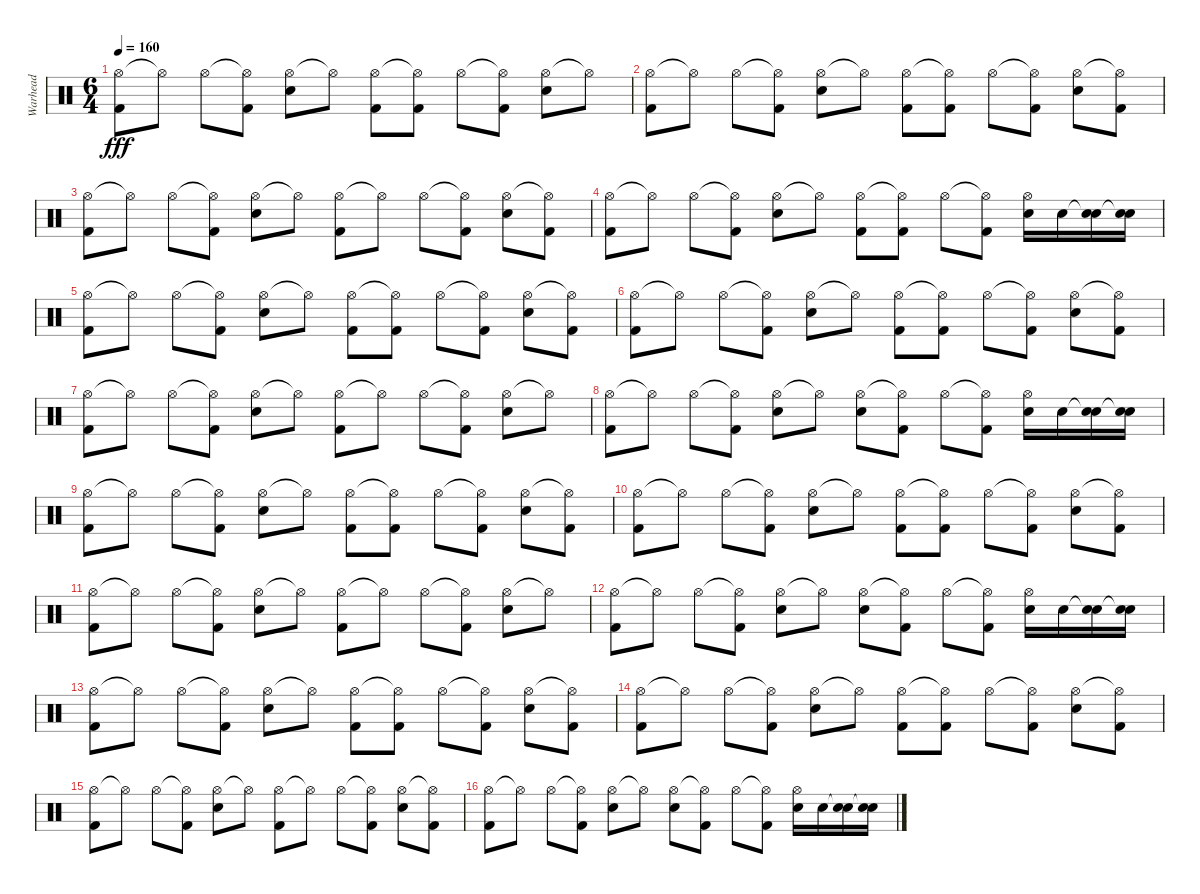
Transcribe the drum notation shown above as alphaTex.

\track ("Warhead" "Warhead") {instrument percussion}
\staff {score}
\articulation defaults
\ts (6 4)
\tempo 160
\clef neutral
\ks c
("Hi-Hat (open)" "Kick (hit) 2").8{dy fff} "Hi-Hat (open)"{t}.8 "Hi-Hat (open)".8 ("Hi-Hat (open)"{t} "Kick (hit) 2").8 ("Hi-Hat (open)" "Electric Snare (hit)").8 "Hi-Hat (open)"{t}.8 ("Hi-Hat (open)" "Kick (hit) 2").8 ("Hi-Hat (open)"{t} "Kick (hit) 2").8 "Hi-Hat (open)".8 ("Hi-Hat (open)"{t} "Kick (hit) 2").8 ("Hi-Hat (open)" "Electric Snare (hit)").8 "Hi-Hat (open)"{t}.8 |
("Hi-Hat (open)" "Kick (hit) 2").8 "Hi-Hat (open)"{t}.8 "Hi-Hat (open)".8 ("Hi-Hat (open)"{t} "Kick (hit) 2").8 ("Hi-Hat (open)" "Electric Snare (hit)").8 "Hi-Hat (open)"{t}.8 ("Hi-Hat (open)" "Kick (hit) 2").8 ("Hi-Hat (open)"{t} "Kick (hit) 2").8 "Hi-Hat (open)".8 ("Hi-Hat (open)"{t} "Kick (hit) 2").8 ("Hi-Hat (open)" "Electric Snare (hit)").8 ("Hi-Hat (open)"{t} "Kick (hit) 2").8 |
("Hi-Hat (open)" "Kick (hit) 2").8 "Hi-Hat (open)"{t}.8 "Hi-Hat (open)".8 ("Hi-Hat (open)"{t} "Kick (hit) 2").8 ("Hi-Hat (open)" "Electric Snare (hit)").8 "Hi-Hat (open)"{t}.8 ("Hi-Hat (open)" "Kick (hit) 2").8 "Hi-Hat (open)"{t}.8 "Hi-Hat (open)".8 ("Hi-Hat (open)"{t} "Kick (hit) 2").8 ("Hi-Hat (open)" "Electric Snare (hit)").8 ("Hi-Hat (open)"{t} "Kick (hit) 2").8 |
("Hi-Hat (open)" "Kick (hit) 2").8 "Hi-Hat (open)"{t}.8 "Hi-Hat (open)".8 ("Hi-Hat (open)"{t} "Kick (hit) 2").8 ("Hi-Hat (open)" "Electric Snare (hit)").8 "Hi-Hat (open)"{t}.8 ("Hi-Hat (open)" "Kick (hit) 2").8 ("Hi-Hat (open)"{t} "Kick (hit) 2").8 "Hi-Hat (open)".8 ("Hi-Hat (open)"{t} "Kick (hit) 2").8 ("Hi-Hat (open)" "Electric Snare (hit)").16 "Electric Snare (hit)".16 ("Snare (hit)"{t} "Electric Snare (hit)").16 ("Snare (hit)"{t} "Electric Snare (hit)").16 |
("Hi-Hat (open)" "Kick (hit) 2").8 "Hi-Hat (open)"{t}.8 "Hi-Hat (open)".8 ("Hi-Hat (open)"{t} "Kick (hit) 2").8 ("Hi-Hat (open)" "Electric Snare (hit)").8 "Hi-Hat (open)"{t}.8 ("Hi-Hat (open)" "Kick (hit) 2").8 ("Hi-Hat (open)"{t} "Kick (hit) 2").8 "Hi-Hat (open)".8 ("Hi-Hat (open)"{t} "Kick (hit) 2").8 ("Hi-Hat (open)" "Electric Snare (hit)").8 ("Hi-Hat (open)"{t} "Kick (hit) 2").8 |
("Hi-Hat (open)" "Kick (hit) 2").8 "Hi-Hat (open)"{t}.8 "Hi-Hat (open)".8 ("Hi-Hat (open)"{t} "Kick (hit) 2").8 ("Hi-Hat (open)" "Electric Snare (hit)").8 "Hi-Hat (open)"{t}.8 ("Hi-Hat (open)" "Kick (hit) 2").8 ("Hi-Hat (open)"{t} "Kick (hit) 2").8 "Hi-Hat (open)".8 ("Hi-Hat (open)"{t} "Kick (hit) 2").8 ("Hi-Hat (open)" "Electric Snare (hit)").8 ("Hi-Hat (open)"{t} "Kick (hit) 2").8 |
("Hi-Hat (open)" "Kick (hit) 2").8 "Hi-Hat (open)"{t}.8 "Hi-Hat (open)".8 ("Hi-Hat (open)"{t} "Kick (hit) 2").8 ("Hi-Hat (open)" "Electric Snare (hit)").8 "Hi-Hat (open)"{t}.8 ("Hi-Hat (open)" "Kick (hit) 2").8 "Hi-Hat (open)"{t}.8 "Hi-Hat (open)".8 ("Hi-Hat (open)"{t} "Kick (hit) 2").8 ("Hi-Hat (open)" "Electric Snare (hit)").8 "Hi-Hat (open)"{t}.8 |
("Hi-Hat (open)" "Kick (hit) 2").8 "Hi-Hat (open)"{t}.8 "Hi-Hat (open)".8 ("Hi-Hat (open)"{t} "Kick (hit) 2").8 ("Hi-Hat (open)" "Electric Snare (hit)").8 "Hi-Hat (open)"{t}.8 ("Hi-Hat (open)" "Electric Snare (hit)").8 ("Hi-Hat (open)"{t} "Kick (hit) 2").8 "Hi-Hat (open)".8 ("Hi-Hat (open)"{t} "Kick (hit) 2").8 ("Hi-Hat (open)" "Electric Snare (hit)").16 "Electric Snare (hit)".16 ("Snare (hit)"{t} "Electric Snare (hit)").16 ("Snare (hit)"{t} "Electric Snare (hit)").16 |
("Hi-Hat (open)" "Kick (hit) 2").8 "Hi-Hat (open)"{t}.8 "Hi-Hat (open)".8 ("Hi-Hat (open)"{t} "Kick (hit) 2").8 ("Hi-Hat (open)" "Electric Snare (hit)").8 "Hi-Hat (open)"{t}.8 ("Hi-Hat (open)" "Kick (hit) 2").8 ("Hi-Hat (open)"{t} "Kick (hit) 2").8 "Hi-Hat (open)".8 ("Hi-Hat (open)"{t} "Kick (hit) 2").8 ("Hi-Hat (open)" "Electric Snare (hit)").8 ("Hi-Hat (open)"{t} "Kick (hit) 2").8 |
("Hi-Hat (open)" "Kick (hit) 2").8 "Hi-Hat (open)"{t}.8 "Hi-Hat (open)".8 ("Hi-Hat (open)"{t} "Kick (hit) 2").8 ("Hi-Hat (open)" "Electric Snare (hit)").8 "Hi-Hat (open)"{t}.8 ("Hi-Hat (open)" "Kick (hit) 2").8 ("Hi-Hat (open)"{t} "Kick (hit) 2").8 "Hi-Hat (open)".8 ("Hi-Hat (open)"{t} "Kick (hit) 2").8 ("Hi-Hat (open)" "Electric Snare (hit)").8 ("Hi-Hat (open)"{t} "Kick (hit) 2").8 |
("Hi-Hat (open)" "Kick (hit) 2").8 "Hi-Hat (open)"{t}.8 "Hi-Hat (open)".8 ("Hi-Hat (open)"{t} "Kick (hit) 2").8 ("Hi-Hat (open)" "Electric Snare (hit)").8 "Hi-Hat (open)"{t}.8 ("Hi-Hat (open)" "Kick (hit) 2").8 "Hi-Hat (open)"{t}.8 "Hi-Hat (open)".8 ("Hi-Hat (open)"{t} "Kick (hit) 2").8 ("Hi-Hat (open)" "Electric Snare (hit)").8 "Hi-Hat (open)"{t}.8 |
("Hi-Hat (open)" "Kick (hit) 2").8 "Hi-Hat (open)"{t}.8 "Hi-Hat (open)".8 ("Hi-Hat (open)"{t} "Kick (hit) 2").8 ("Hi-Hat (open)" "Electric Snare (hit)").8 "Hi-Hat (open)"{t}.8 ("Hi-Hat (open)" "Electric Snare (hit)").8 ("Hi-Hat (open)"{t} "Kick (hit) 2").8 "Hi-Hat (open)".8 ("Hi-Hat (open)"{t} "Kick (hit) 2").8 ("Hi-Hat (open)" "Electric Snare (hit)").16 "Electric Snare (hit)".16 ("Snare (hit)"{t} "Electric Snare (hit)").16 ("Snare (hit)"{t} "Electric Snare (hit)").16 |
("Hi-Hat (open)" "Kick (hit) 2").8 "Hi-Hat (open)"{t}.8 "Hi-Hat (open)".8 ("Hi-Hat (open)"{t} "Kick (hit) 2").8 ("Hi-Hat (open)" "Electric Snare (hit)").8 "Hi-Hat (open)"{t}.8 ("Hi-Hat (open)" "Kick (hit) 2").8 ("Hi-Hat (open)"{t} "Kick (hit) 2").8 "Hi-Hat (open)".8 ("Hi-Hat (open)"{t} "Kick (hit) 2").8 ("Hi-Hat (open)" "Electric Snare (hit)").8 ("Hi-Hat (open)"{t} "Kick (hit) 2").8 |
("Hi-Hat (open)" "Kick (hit) 2").8 "Hi-Hat (open)"{t}.8 "Hi-Hat (open)".8 ("Hi-Hat (open)"{t} "Kick (hit) 2").8 ("Hi-Hat (open)" "Electric Snare (hit)").8 "Hi-Hat (open)"{t}.8 ("Hi-Hat (open)" "Kick (hit) 2").8 ("Hi-Hat (open)"{t} "Kick (hit) 2").8 "Hi-Hat (open)".8 ("Hi-Hat (open)"{t} "Kick (hit) 2").8 ("Hi-Hat (open)" "Electric Snare (hit)").8 ("Hi-Hat (open)"{t} "Kick (hit) 2").8 |
("Hi-Hat (open)" "Kick (hit) 2").8 "Hi-Hat (open)"{t}.8 "Hi-Hat (open)".8 ("Hi-Hat (open)"{t} "Kick (hit) 2").8 ("Hi-Hat (open)" "Electric Snare (hit)").8 "Hi-Hat (open)"{t}.8 ("Hi-Hat (open)" "Kick (hit) 2").8 "Hi-Hat (open)"{t}.8 "Hi-Hat (open)".8 ("Hi-Hat (open)"{t} "Kick (hit) 2").8 ("Hi-Hat (open)" "Electric Snare (hit)").8 ("Hi-Hat (open)"{t} "Kick (hit) 2").8 |
("Hi-Hat (open)" "Kick (hit) 2").8 "Hi-Hat (open)"{t}.8 "Hi-Hat (open)".8 ("Hi-Hat (open)"{t} "Kick (hit) 2").8 ("Hi-Hat (open)" "Electric Snare (hit)").8 "Hi-Hat (open)"{t}.8 ("Hi-Hat (open)" "Electric Snare (hit)").8 ("Hi-Hat (open)"{t} "Kick (hit) 2").8 "Hi-Hat (open)".8 ("Hi-Hat (open)"{t} "Kick (hit) 2").8 ("Hi-Hat (open)" "Electric Snare (hit)").16 "Electric Snare (hit)".16 ("Snare (hit)"{t} "Electric Snare (hit)").16 ("Snare (hit)"{t} "Electric Snare (hit)").16
